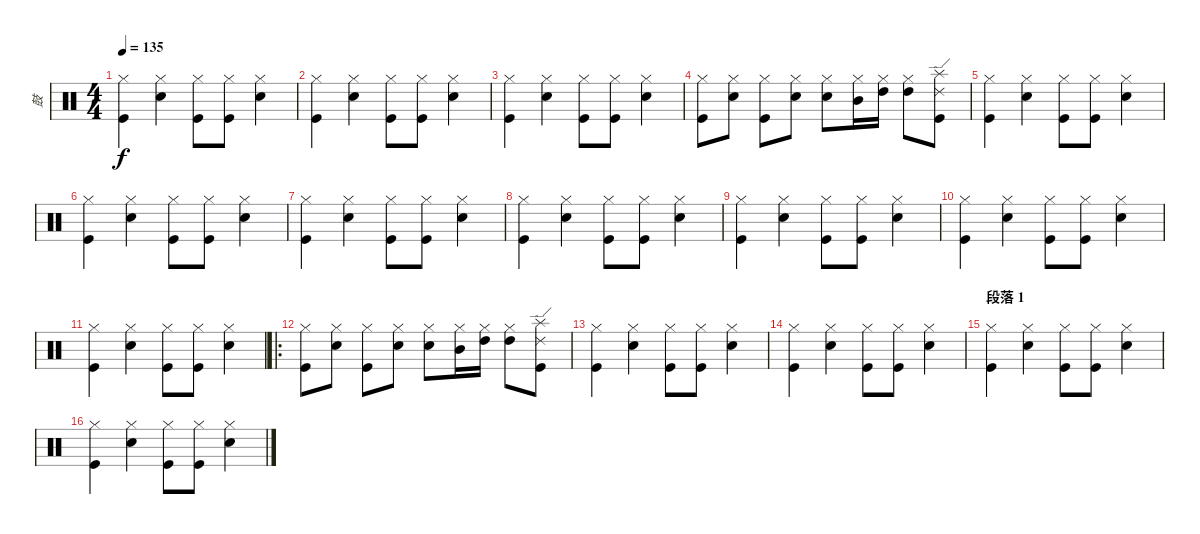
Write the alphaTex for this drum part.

\track ("鼓" "鼓") {instrument percussion}
\staff {score}
\articulation defaults
\ts (4 4)
\tempo 135
\clef neutral
\ks c
("Hi-Hat (closed)" "Kick (hit)").4{dy f} ("Hi-Hat (closed)" "Metronome (bell)").4 ("Hi-Hat (closed)" "Kick (hit)").8 ("Hi-Hat (closed)" "Kick (hit)").8 ("Hi-Hat (closed)" "Metronome (bell)").4 |
("Hi-Hat (closed)" "Kick (hit)").4 ("Hi-Hat (closed)" "Metronome (bell)").4 ("Hi-Hat (closed)" "Kick (hit)").8 ("Hi-Hat (closed)" "Kick (hit)").8 ("Hi-Hat (closed)" "Metronome (bell)").4 |
("Hi-Hat (closed)" "Kick (hit)").4 ("Hi-Hat (closed)" "Metronome (bell)").4 ("Hi-Hat (closed)" "Kick (hit)").8 ("Hi-Hat (closed)" "Kick (hit)").8 ("Hi-Hat (closed)" "Metronome (bell)").4 |
("Hi-Hat (closed)" "Kick (hit)").8 ("Hi-Hat (closed)" "Metronome (bell)").8 ("Hi-Hat (closed)" "Kick (hit)").8 ("Hi-Hat (closed)" "Metronome (bell)").8 ("Hi-Hat (closed)" "Metronome (bell)").8 ("Hi-Hat (closed)" "Mid Tom (hit)").16 ("Hi-Hat (closed)" "High Tom (hit)").16 ("Hi-Hat (closed)" "High Tom (hit)").8 ("Splash (hit)" "Ride (edge) 2" "Kick (hit)").8 |
("Hi-Hat (closed)" "Kick (hit)").4 ("Hi-Hat (closed)" "Metronome (bell)").4 ("Hi-Hat (closed)" "Kick (hit)").8 ("Hi-Hat (closed)" "Kick (hit)").8 ("Hi-Hat (closed)" "Metronome (bell)").4 |
("Hi-Hat (closed)" "Kick (hit)").4 ("Hi-Hat (closed)" "Metronome (bell)").4 ("Hi-Hat (closed)" "Kick (hit)").8 ("Hi-Hat (closed)" "Kick (hit)").8 ("Hi-Hat (closed)" "Metronome (bell)").4 |
("Hi-Hat (closed)" "Kick (hit)").4 ("Hi-Hat (closed)" "Metronome (bell)").4 ("Hi-Hat (closed)" "Kick (hit)").8 ("Hi-Hat (closed)" "Kick (hit)").8 ("Hi-Hat (closed)" "Metronome (bell)").4 |
("Hi-Hat (closed)" "Kick (hit)").4 ("Hi-Hat (closed)" "Metronome (bell)").4 ("Hi-Hat (closed)" "Kick (hit)").8 ("Hi-Hat (closed)" "Kick (hit)").8 ("Hi-Hat (closed)" "Metronome (bell)").4 |
("Hi-Hat (closed)" "Kick (hit)").4 ("Hi-Hat (closed)" "Metronome (bell)").4 ("Hi-Hat (closed)" "Kick (hit)").8 ("Hi-Hat (closed)" "Kick (hit)").8 ("Hi-Hat (closed)" "Metronome (bell)").4 |
("Hi-Hat (closed)" "Kick (hit)").4 ("Hi-Hat (closed)" "Metronome (bell)").4 ("Hi-Hat (closed)" "Kick (hit)").8 ("Hi-Hat (closed)" "Kick (hit)").8 ("Hi-Hat (closed)" "Metronome (bell)").4 |
("Hi-Hat (closed)" "Kick (hit)").4 ("Hi-Hat (closed)" "Metronome (bell)").4 ("Hi-Hat (closed)" "Kick (hit)").8 ("Hi-Hat (closed)" "Kick (hit)").8 ("Hi-Hat (closed)" "Metronome (bell)").4 |
\ro
("Hi-Hat (closed)" "Kick (hit)").8 ("Hi-Hat (closed)" "Metronome (bell)").8 ("Hi-Hat (closed)" "Kick (hit)").8 ("Hi-Hat (closed)" "Metronome (bell)").8 ("Hi-Hat (closed)" "Metronome (bell)").8 ("Hi-Hat (closed)" "Mid Tom (hit)").16 ("Hi-Hat (closed)" "High Tom (hit)").16 ("Hi-Hat (closed)" "High Tom (hit)").8 ("Splash (hit)" "Ride (edge) 2" "Kick (hit)").8 |
("Hi-Hat (closed)" "Kick (hit)").4 ("Hi-Hat (closed)" "Metronome (bell)").4 ("Hi-Hat (closed)" "Kick (hit)").8 ("Hi-Hat (closed)" "Kick (hit)").8 ("Hi-Hat (closed)" "Metronome (bell)").4 |
("Hi-Hat (closed)" "Kick (hit)").4 ("Hi-Hat (closed)" "Metronome (bell)").4 ("Hi-Hat (closed)" "Kick (hit)").8 ("Hi-Hat (closed)" "Kick (hit)").8 ("Hi-Hat (closed)" "Metronome (bell)").4 |
\section ("" "段落 1")
("Hi-Hat (closed)" "Kick (hit)").4 ("Hi-Hat (closed)" "Metronome (bell)").4 ("Hi-Hat (closed)" "Kick (hit)").8 ("Hi-Hat (closed)" "Kick (hit)").8 ("Hi-Hat (closed)" "Metronome (bell)").4 |
("Hi-Hat (closed)" "Kick (hit)").4 ("Hi-Hat (closed)" "Metronome (bell)").4 ("Hi-Hat (closed)" "Kick (hit)").8 ("Hi-Hat (closed)" "Kick (hit)").8 ("Hi-Hat (closed)" "Metronome (bell)").4
